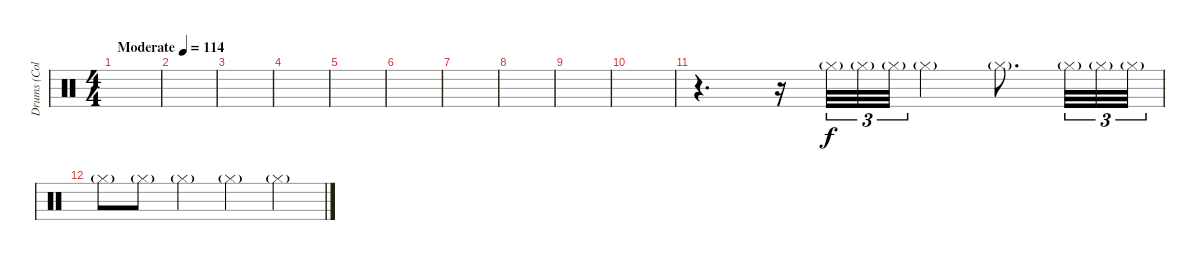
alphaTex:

\track ("Drums (Collins)" "Drums (Col") {instrument percussion}
\staff {score}
\articulation defaults
\ts (4 4)
\tempo (114 "Moderate")
\clef neutral
\ks c
|
|
|
|
|
|
|
|
|
|
r.4{d} r.16 "Hi-Hat (closed)"{g}.32{tu (3 2)} "Hi-Hat (closed)"{g}.32{tu (3 2)} "Hi-Hat (closed)"{g}.32{tu (3 2)} "Hi-Hat (closed)"{g}.4 "Hi-Hat (closed)"{g}.8{d} "Hi-Hat (closed)"{g}.32{tu (3 2)} "Hi-Hat (closed)"{g}.32{tu (3 2)} "Hi-Hat (closed)"{g}.32{tu (3 2)} |
"Hi-Hat (closed)"{g}.8 "Hi-Hat (closed)"{g}.8 "Hi-Hat (closed)"{g}.4 "Hi-Hat (closed)"{g}.4 "Hi-Hat (closed)"{g}.4
